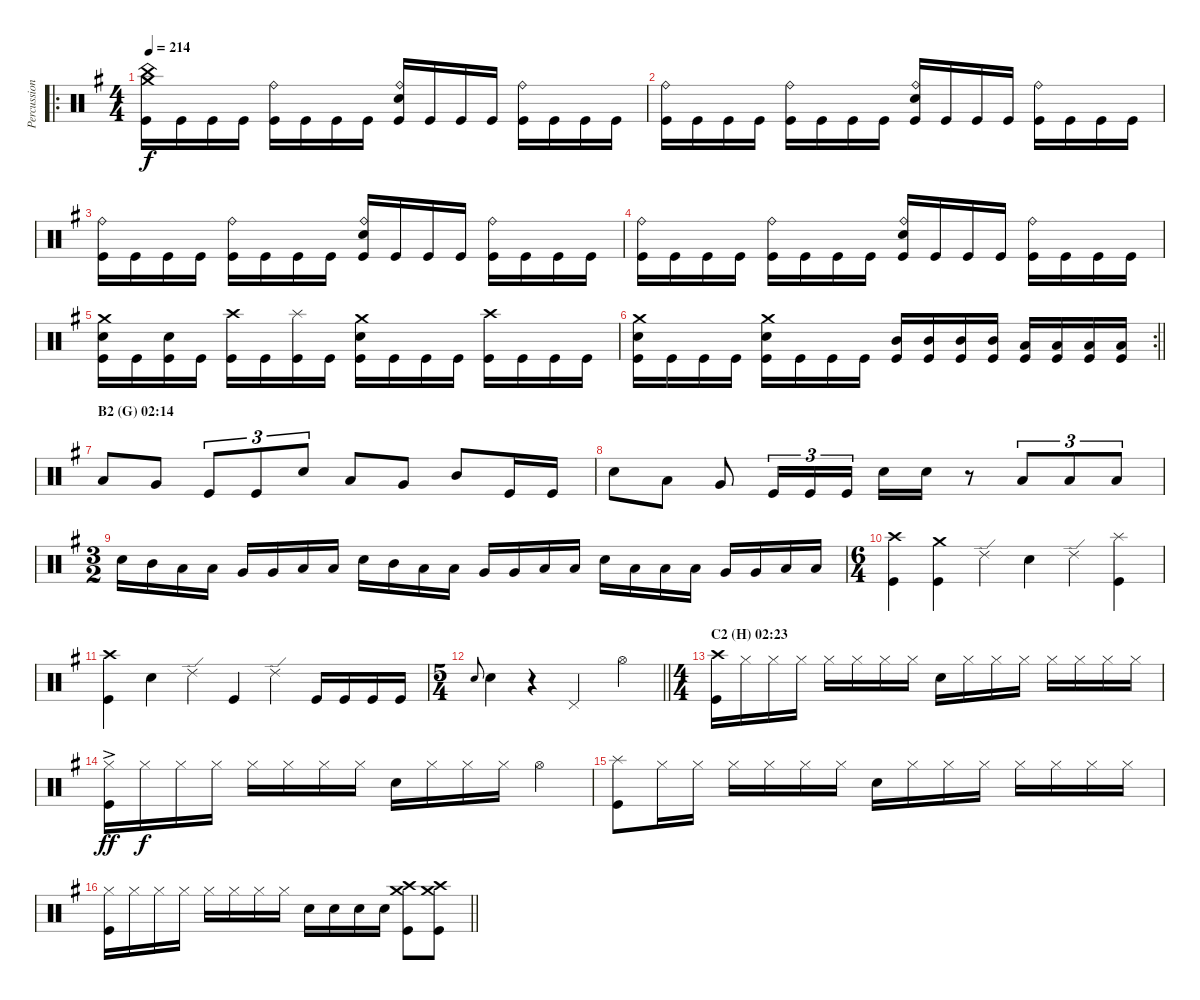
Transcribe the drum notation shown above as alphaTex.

\track ("Percussion" "Percussion") {instrument percussion}
\staff {score}
\articulation defaults
\ro
\ts (4 4)
\tempo 214
\clef neutral
\ks eminor
("China (hit)" "Crash medium (hit)" "Kick (hit)").16{dy f} "Kick (hit)".16 "Kick (hit)".16 "Kick (hit)".16 ("Ride (bell)" "Kick (hit)").16 "Kick (hit)".16 "Kick (hit)".16 "Kick (hit)".16 ("Ride (bell)" "Snare (hit) 2" "Kick (hit)").16 "Kick (hit)".16 "Kick (hit)".16 "Kick (hit)".16 ("Ride (bell)" "Kick (hit)").16 "Kick (hit)".16 "Kick (hit)".16 "Kick (hit)".16 |
("Ride (bell)" "Kick (hit)").16 "Kick (hit)".16 "Kick (hit)".16 "Kick (hit)".16 ("Ride (bell)" "Kick (hit)").16 "Kick (hit)".16 "Kick (hit)".16 "Kick (hit)".16 ("Ride (bell)" "Snare (hit) 2" "Kick (hit)").16 "Kick (hit)".16 "Kick (hit)".16 "Kick (hit)".16 ("Ride (bell)" "Kick (hit)").16 "Kick (hit)".16 "Kick (hit)".16 "Kick (hit)".16 |
("Ride (bell)" "Kick (hit)").16 "Kick (hit)".16 "Kick (hit)".16 "Kick (hit)".16 ("Ride (bell)" "Kick (hit)").16 "Kick (hit)".16 "Kick (hit)".16 "Kick (hit)".16 ("Ride (bell)" "Snare (hit) 2" "Kick (hit)").16 "Kick (hit)".16 "Kick (hit)".16 "Kick (hit)".16 ("Ride (bell)" "Kick (hit)").16 "Kick (hit)".16 "Kick (hit)".16 "Kick (hit)".16 |
("Ride (bell)" "Kick (hit)").16 "Kick (hit)".16 "Kick (hit)".16 "Kick (hit)".16 ("Ride (bell)" "Kick (hit)").16 "Kick (hit)".16 "Kick (hit)".16 "Kick (hit)".16 ("Ride (bell)" "Snare (hit) 2" "Kick (hit)").16 "Kick (hit)".16 "Kick (hit)".16 "Kick (hit)".16 ("Ride (bell)" "Kick (hit)").16 "Kick (hit)".16 "Kick (hit)".16 "Kick (hit)".16 |
("Crash medium (hit)" "Snare (hit) 2" "Kick (hit)").16 "Kick (hit)".16 ("Snare (hit) 2" "Kick (hit)").16 "Kick (hit)".16 ("Crash high (hit)" "Kick (hit)").16 "Kick (hit)".16 ("Splash (hit)" "Kick (hit)").16 "Kick (hit)".16 ("Crash medium (hit)" "Snare (hit) 2" "Kick (hit)").16 "Kick (hit)".16 "Kick (hit)".16 "Kick (hit)".16 ("Crash high (hit)" "Kick (hit)").16 "Kick (hit)".16 "Kick (hit)".16 "Kick (hit)".16 |
\rc 2
\barLineRight lightlight
("Crash medium (hit)" "Snare (hit) 2" "Kick (hit)").16 "Kick (hit)".16 "Kick (hit)".16 "Kick (hit)".16 ("Crash medium (hit)" "Snare (hit) 2" "Kick (hit)").16 "Kick (hit)".16 "Kick (hit)".16 "Kick (hit)".16 ("Mid Tom (hit)" "Kick (hit)").16 ("Mid Tom (hit)" "Kick (hit)").16 ("Mid Tom (hit)" "Kick (hit)").16 ("Mid Tom (hit)" "Kick (hit)").16 ("Low Tom (hit)" "Kick (hit)").16 ("Low Tom (hit)" "Kick (hit)").16 ("Low Tom (hit)" "Kick (hit)").16 ("Low Tom (hit)" "Kick (hit)").16 |
\section ("" "B2 (G) 02:14")
"Low Tom (hit)".8 "Very Low Tom (hit)".8 "Kick (hit)".8{tu (3 2)} "Kick (hit)".8{tu (3 2)} "Snare (hit) 2".8{tu (3 2)} "Low Tom (hit)".8 "Very Low Tom (hit)".8 "Mid Tom (hit)".8 "Kick (hit)".16 "Kick (hit)".16 |
"Snare (hit) 2".8 "Low Tom (hit)".8 "Very Low Tom (hit)".8 "Kick (hit)".16{tu (3 2)} "Kick (hit)".16{tu (3 2)} "Kick (hit)".16{tu (3 2)} "Snare (hit) 2".16 "Snare (hit) 2".16 r.8 "Low Floor Tom (hit)".8{tu (3 2)} "Low Floor Tom (hit)".8{tu (3 2)} "Low Floor Tom (hit)".8{tu (3 2)} |
\ts (3 2)
"Snare (hit) 2".16 "Mid Tom (hit)".16 "Low Tom (hit)".16 "Low Tom (hit)".16 "Very Low Tom (hit)".16 "Very Low Tom (hit)".16 "Low Floor Tom (hit)".16 "Low Floor Tom (hit)".16 "Snare (hit) 2".16 "Mid Tom (hit)".16 "Low Tom (hit)".16 "Low Tom (hit)".16 "Very Low Tom (hit)".16 "Very Low Tom (hit)".16 "Low Floor Tom (hit)".16 "Low Floor Tom (hit)".16 "Snare (hit) 2".16 "Low Tom (hit)".16 "Low Tom (hit)".16 "Low Tom (hit)".16 "Very Low Tom (hit)".16 "Very Low Tom (hit)".16 "Low Floor Tom (hit)".16 "Low Floor Tom (hit)".16 |
\ts (6 4)
("Crash high (hit)" "Kick (hit)").4 ("Crash medium (hit)" "Kick (hit)").4 "Ride (edge) 2".4 "Snare (hit) 2".4 "Ride (edge) 2".4 ("Splash (hit)" "Kick (hit)").4 |
("Crash high (hit)" "Kick (hit)").4 "Snare (hit) 2".4 "Ride (edge) 2".4 "Kick (hit)".4 "Ride (edge) 2".4 "Kick (hit)".16 "Kick (hit)".16 "Kick (hit)".16 "Kick (hit)".16 |
\ts (5 4)
\barLineRight lightlight "Snare (hit) 2".8{gr onbeat} "Snare (hit) 2".4
r.4 "Pedal Hi-Hat (hit)".2 "Hi-Hat (open)".4 |
\ts (4 4)
\section ("" "C2 (H) 02:23")
("Crash high (hit)" "Kick (hit)").16 "Hi-Hat (closed)".16 "Hi-Hat (closed)".16 "Hi-Hat (closed)".16 "Hi-Hat (closed)".16 "Hi-Hat (closed)".16 "Hi-Hat (closed)".16 "Hi-Hat (closed)".16 "Snare (hit) 2".16 "Hi-Hat (closed)".16 "Hi-Hat (closed)".16 "Hi-Hat (closed)".16 "Hi-Hat (closed)".16 "Hi-Hat (closed)".16 "Hi-Hat (closed)".16 "Hi-Hat (closed)".16 |
("Hi-Hat (closed)"{ac} "Kick (hit)").16{dy ff} "Hi-Hat (closed)".16{dy f} "Hi-Hat (closed)".16 "Hi-Hat (closed)".16 "Hi-Hat (closed)".16 "Hi-Hat (closed)".16 "Hi-Hat (closed)".16 "Hi-Hat (closed)".16 "Snare (hit) 2".16 "Hi-Hat (closed)".16 "Hi-Hat (closed)".16 "Hi-Hat (closed)".16 "Hi-Hat (open)".4 |
("Splash (hit)" "Kick (hit)").8 "Hi-Hat (closed)".16 "Hi-Hat (closed)".16 "Hi-Hat (closed)".16 "Hi-Hat (closed)".16 "Hi-Hat (closed)".16 "Hi-Hat (closed)".16 "Snare (hit) 2".16 "Hi-Hat (closed)".16 "Hi-Hat (closed)".16 "Hi-Hat (closed)".16 "Hi-Hat (closed)".16 "Hi-Hat (closed)".16 "Hi-Hat (closed)".16 "Hi-Hat (closed)".16 |
\barLineRight lightlight
("Hi-Hat (closed)" "Kick (hit)").16 "Hi-Hat (closed)".16 "Hi-Hat (closed)".16 "Hi-Hat (closed)".16 "Hi-Hat (closed)".16 "Hi-Hat (closed)".16 "Hi-Hat (closed)".16 "Hi-Hat (closed)".16 "Snare (hit) 2".16 "Snare (hit) 2".16 "Snare (hit) 2".16 "Snare (hit) 2".16 ("Crash high (hit)" "Crash medium (hit)" "Kick (hit)").8 ("Crash medium (hit)" "Crash high (hit)" "Kick (hit)").8
